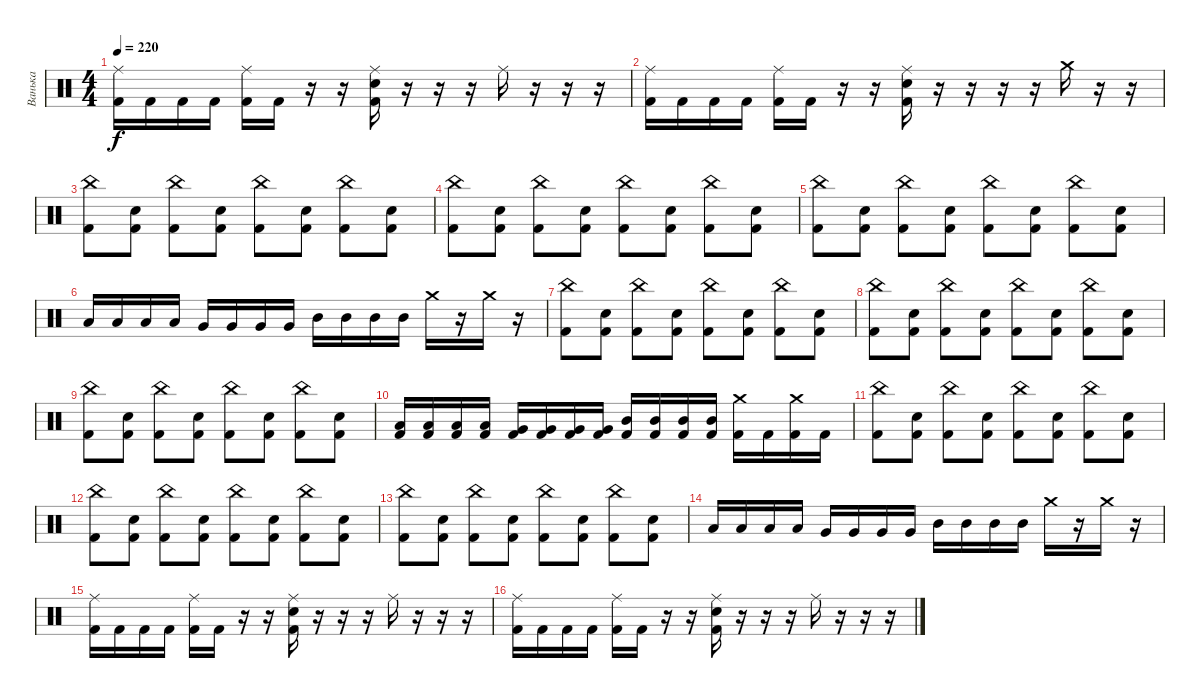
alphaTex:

\track ("Ванька" "Ванька") {instrument percussion}
\staff {score}
\articulation defaults
\ts (4 4)
\tempo 220
\clef neutral
\ks c
("Ride (middle)" "Kick (hit) 2").16{dy f} "Kick (hit) 2".16 "Kick (hit) 2".16 "Kick (hit) 2".16 ("Ride (middle)" "Kick (hit) 2").16 "Kick (hit) 2".16 r.16 r.16 ("Ride (middle)" "Snare (hit) 2" "Kick (hit) 2").16 r.16 r.16 r.16 "Ride (middle)".16 r.16 r.16 r.16 |
("Ride (middle)" "Kick (hit) 2").16 "Kick (hit) 2".16 "Kick (hit) 2".16 "Kick (hit) 2".16 ("Ride (middle)" "Kick (hit) 2").16 "Kick (hit) 2".16 r.16 r.16 ("Ride (middle)" "Snare (hit) 2" "Kick (hit) 2").16 r.16 r.16 r.16 r.16 "Crash medium (hit)".16 r.16 r.16 |
("China (hit)" "Kick (hit) 2").8 ("Snare (hit) 2" "Kick (hit) 2").8 ("China (hit)" "Kick (hit) 2").8 ("Snare (hit) 2" "Kick (hit) 2").8 ("China (hit)" "Kick (hit) 2").8 ("Snare (hit) 2" "Kick (hit) 2").8 ("China (hit)" "Kick (hit) 2").8 ("Snare (hit) 2" "Kick (hit) 2").8 |
("China (hit)" "Kick (hit) 2").8 ("Snare (hit) 2" "Kick (hit) 2").8 ("China (hit)" "Kick (hit) 2").8 ("Snare (hit) 2" "Kick (hit) 2").8 ("China (hit)" "Kick (hit) 2").8 ("Snare (hit) 2" "Kick (hit) 2").8 ("China (hit)" "Kick (hit) 2").8 ("Snare (hit) 2" "Kick (hit) 2").8 |
("China (hit)" "Kick (hit) 2").8 ("Snare (hit) 2" "Kick (hit) 2").8 ("China (hit)" "Kick (hit) 2").8 ("Snare (hit) 2" "Kick (hit) 2").8 ("China (hit)" "Kick (hit) 2").8 ("Snare (hit) 2" "Kick (hit) 2").8 ("China (hit)" "Kick (hit) 2").8 ("Snare (hit) 2" "Kick (hit) 2").8 |
"Low Floor Tom (hit)".16 "Low Floor Tom (hit)".16 "Low Floor Tom (hit)".16 "Low Floor Tom (hit)".16 "Very Low Tom (hit)".16 "Very Low Tom (hit)".16 "Very Low Tom (hit)".16 "Very Low Tom (hit)".16 "Mid Tom (hit)".16 "Mid Tom (hit)".16 "Mid Tom (hit)".16 "Mid Tom (hit)".16 "Crash medium (hit)".16 r.16 "Crash medium (hit)".16 r.16 |
("China (hit)" "Kick (hit) 2").8 ("Snare (hit) 2" "Kick (hit) 2").8 ("China (hit)" "Kick (hit) 2").8 ("Snare (hit) 2" "Kick (hit) 2").8 ("China (hit)" "Kick (hit) 2").8 ("Snare (hit) 2" "Kick (hit) 2").8 ("China (hit)" "Kick (hit) 2").8 ("Snare (hit) 2" "Kick (hit) 2").8 |
("China (hit)" "Kick (hit) 2").8 ("Snare (hit) 2" "Kick (hit) 2").8 ("China (hit)" "Kick (hit) 2").8 ("Snare (hit) 2" "Kick (hit) 2").8 ("China (hit)" "Kick (hit) 2").8 ("Snare (hit) 2" "Kick (hit) 2").8 ("China (hit)" "Kick (hit) 2").8 ("Snare (hit) 2" "Kick (hit) 2").8 |
("China (hit)" "Kick (hit) 2").8 ("Snare (hit) 2" "Kick (hit) 2").8 ("China (hit)" "Kick (hit) 2").8 ("Snare (hit) 2" "Kick (hit) 2").8 ("China (hit)" "Kick (hit) 2").8 ("Snare (hit) 2" "Kick (hit) 2").8 ("China (hit)" "Kick (hit) 2").8 ("Snare (hit) 2" "Kick (hit) 2").8 |
("Low Floor Tom (hit)" "Kick (hit) 2").16 ("Low Floor Tom (hit)" "Kick (hit) 2").16 ("Low Floor Tom (hit)" "Kick (hit) 2").16 ("Low Floor Tom (hit)" "Kick (hit) 2").16 ("Very Low Tom (hit)" "Kick (hit) 2").16 ("Very Low Tom (hit)" "Kick (hit) 2").16 ("Very Low Tom (hit)" "Kick (hit) 2").16 ("Very Low Tom (hit)" "Kick (hit) 2").16 ("Mid Tom (hit)" "Kick (hit) 2").16 ("Mid Tom (hit)" "Kick (hit) 2").16 ("Mid Tom (hit)" "Kick (hit) 2").16 ("Mid Tom (hit)" "Kick (hit) 2").16 ("Crash medium (hit)" "Kick (hit) 2").16 "Kick (hit) 2".16 ("Crash medium (hit)" "Kick (hit) 2").16 "Kick (hit) 2".16 |
("China (hit)" "Kick (hit) 2").8 ("Snare (hit) 2" "Kick (hit) 2").8 ("China (hit)" "Kick (hit) 2").8 ("Snare (hit) 2" "Kick (hit) 2").8 ("China (hit)" "Kick (hit) 2").8 ("Snare (hit) 2" "Kick (hit) 2").8 ("China (hit)" "Kick (hit) 2").8 ("Snare (hit) 2" "Kick (hit) 2").8 |
("China (hit)" "Kick (hit) 2").8 ("Snare (hit) 2" "Kick (hit) 2").8 ("China (hit)" "Kick (hit) 2").8 ("Snare (hit) 2" "Kick (hit) 2").8 ("China (hit)" "Kick (hit) 2").8 ("Snare (hit) 2" "Kick (hit) 2").8 ("China (hit)" "Kick (hit) 2").8 ("Snare (hit) 2" "Kick (hit) 2").8 |
("China (hit)" "Kick (hit) 2").8 ("Snare (hit) 2" "Kick (hit) 2").8 ("China (hit)" "Kick (hit) 2").8 ("Snare (hit) 2" "Kick (hit) 2").8 ("China (hit)" "Kick (hit) 2").8 ("Snare (hit) 2" "Kick (hit) 2").8 ("China (hit)" "Kick (hit) 2").8 ("Snare (hit) 2" "Kick (hit) 2").8 |
"Low Floor Tom (hit)".16 "Low Floor Tom (hit)".16 "Low Floor Tom (hit)".16 "Low Floor Tom (hit)".16 "Very Low Tom (hit)".16 "Very Low Tom (hit)".16 "Very Low Tom (hit)".16 "Very Low Tom (hit)".16 "Mid Tom (hit)".16 "Mid Tom (hit)".16 "Mid Tom (hit)".16 "Mid Tom (hit)".16 "Crash medium (hit)".16 r.16 "Crash medium (hit)".16 r.16 |
("Ride (middle)" "Kick (hit) 2").16 "Kick (hit) 2".16 "Kick (hit) 2".16 "Kick (hit) 2".16 ("Ride (middle)" "Kick (hit) 2").16 "Kick (hit) 2".16 r.16 r.16 ("Ride (middle)" "Snare (hit) 2" "Kick (hit) 2").16 r.16 r.16 r.16 "Ride (middle)".16 r.16 r.16 r.16 |
("Ride (middle)" "Kick (hit) 2").16 "Kick (hit) 2".16 "Kick (hit) 2".16 "Kick (hit) 2".16 ("Ride (middle)" "Kick (hit) 2").16 "Kick (hit) 2".16 r.16 r.16 ("Ride (middle)" "Snare (hit) 2" "Kick (hit) 2").16 r.16 r.16 r.16 "Ride (middle)".16 r.16 r.16 r.16
